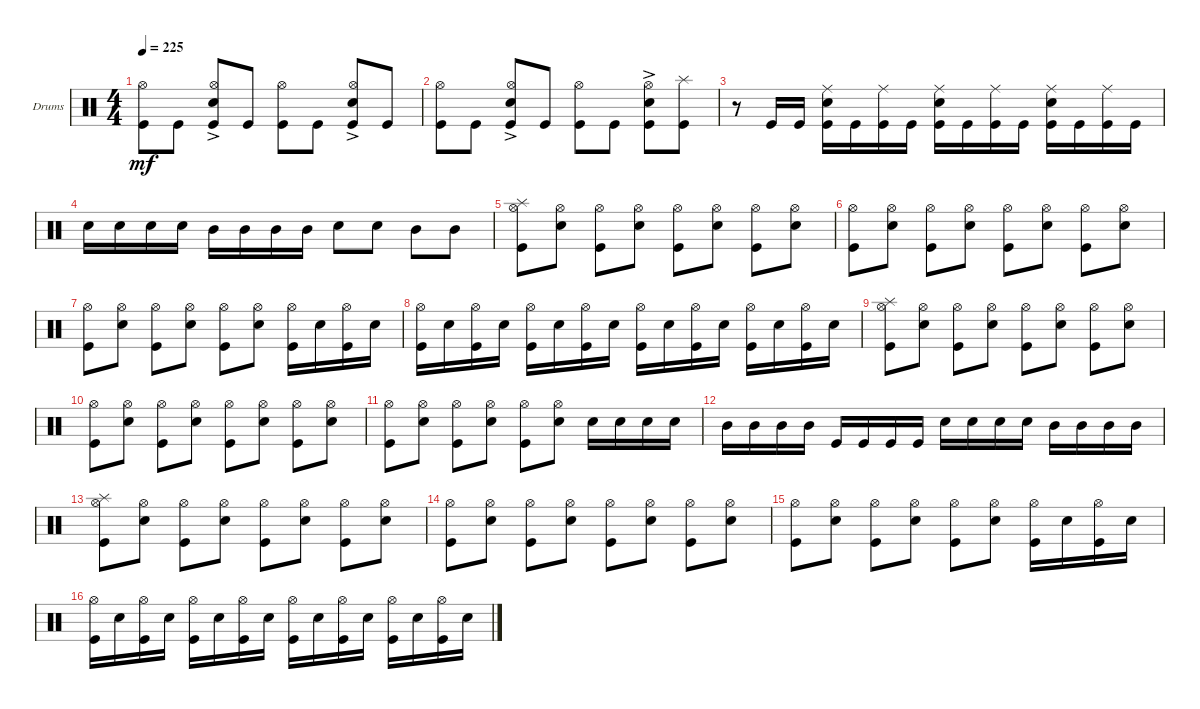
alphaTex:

\bracketExtendMode groupsimilarinstruments
\firstSystemTrackNameOrientation horizontal
\otherSystemsTrackNameOrientation horizontal
\track ("Drumkit" "Drums") {instrument percussion}
\staff {score}
\articulation defaults
\ts (4 4)
\tempo 225
\clef neutral
\ks c
("Kick (hit)" "Hi-Hat (open)").8{dy mf} "Kick (hit)".8 ("Snare (hit) 2"{ac} "Kick (hit)" "Hi-Hat (open)").8 "Kick (hit)".8 ("Kick (hit)" "Hi-Hat (open)").8 "Kick (hit)".8 ("Snare (hit) 2"{ac} "Kick (hit)" "Hi-Hat (open)").8 "Kick (hit)".8 |
("Kick (hit)" "Hi-Hat (open)").8 "Kick (hit)".8 ("Snare (hit) 2"{ac} "Kick (hit)" "Hi-Hat (open)").8 "Kick (hit)".8 ("Kick (hit)" "Hi-Hat (open)").8 "Kick (hit)".8 ("Snare (hit) 2"{ac} "Kick (hit)" "Hi-Hat (open)").8 ("Kick (hit)" "Splash (hit)").8 |
r.8 "Kick (hit)".16 "Kick (hit)".16 ("Snare (hit) 2" "Kick (hit)" "Ride (middle)").16 "Kick (hit)".16 ("Kick (hit)" "Ride (middle)").16 "Kick (hit)".16 ("Snare (hit) 2" "Kick (hit)" "Ride (middle)").16 "Kick (hit)".16 ("Kick (hit)" "Ride (middle)").16 "Kick (hit)".16 ("Snare (hit) 2" "Kick (hit)" "Ride (middle)").16 "Kick (hit)".16 ("Kick (hit)" "Ride (middle)").16 "Kick (hit)".16 |
"Snare (hit) 2".16 "Snare (hit) 2".16 "Snare (hit) 2".16 "Snare (hit) 2".16 "Mid Tom (hit)".16 "Mid Tom (hit)".16 "Mid Tom (hit)".16 "Mid Tom (hit)".16 "Snare (hit) 2".8 "Snare (hit) 2".8 "Mid Tom (hit)".8 "Mid Tom (hit)".8 |
("Kick (hit)" "Hi-Hat (open)" "Splash (hit)").8 ("Snare (hit) 2" "Hi-Hat (open)").8 ("Kick (hit)" "Hi-Hat (open)").8 ("Snare (hit) 2" "Hi-Hat (open)").8 ("Kick (hit)" "Hi-Hat (open)").8 ("Snare (hit) 2" "Hi-Hat (open)").8 ("Kick (hit)" "Hi-Hat (open)").8 ("Snare (hit) 2" "Hi-Hat (open)").8 |
("Kick (hit)" "Hi-Hat (open)").8 ("Snare (hit) 2" "Hi-Hat (open)").8 ("Kick (hit)" "Hi-Hat (open)").8 ("Snare (hit) 2" "Hi-Hat (open)").8 ("Kick (hit)" "Hi-Hat (open)").8 ("Snare (hit) 2" "Hi-Hat (open)").8 ("Kick (hit)" "Hi-Hat (open)").8 ("Snare (hit) 2" "Hi-Hat (open)").8 |
("Kick (hit)" "Hi-Hat (open)").8 ("Snare (hit) 2" "Hi-Hat (open)").8 ("Kick (hit)" "Hi-Hat (open)").8 ("Snare (hit) 2" "Hi-Hat (open)").8 ("Kick (hit)" "Hi-Hat (open)").8 ("Snare (hit) 2" "Hi-Hat (open)").8 ("Kick (hit)" "Hi-Hat (open)").16 "Snare (hit) 2".16 ("Kick (hit)" "Hi-Hat (open)").16 "Snare (hit) 2".16 |
("Kick (hit)" "Hi-Hat (open)").16 "Snare (hit) 2".16 ("Kick (hit)" "Hi-Hat (open)").16 "Snare (hit) 2".16 ("Kick (hit)" "Hi-Hat (open)").16 "Snare (hit) 2".16 ("Kick (hit)" "Hi-Hat (open)").16 "Snare (hit) 2".16 ("Kick (hit)" "Hi-Hat (open)").16 "Snare (hit) 2".16 ("Kick (hit)" "Hi-Hat (open)").16 "Snare (hit) 2".16 ("Kick (hit)" "Hi-Hat (open)").16 "Snare (hit) 2".16 ("Kick (hit)" "Hi-Hat (open)").16 "Snare (hit) 2".16 |
("Kick (hit)" "Hi-Hat (open)" "Splash (hit)").8 ("Snare (hit) 2" "Hi-Hat (open)").8 ("Kick (hit)" "Hi-Hat (open)").8 ("Snare (hit) 2" "Hi-Hat (open)").8 ("Kick (hit)" "Hi-Hat (open)").8 ("Snare (hit) 2" "Hi-Hat (open)").8 ("Kick (hit)" "Hi-Hat (open)").8 ("Snare (hit) 2" "Hi-Hat (open)").8 |
("Kick (hit)" "Hi-Hat (open)").8 ("Snare (hit) 2" "Hi-Hat (open)").8 ("Kick (hit)" "Hi-Hat (open)").8 ("Snare (hit) 2" "Hi-Hat (open)").8 ("Kick (hit)" "Hi-Hat (open)").8 ("Snare (hit) 2" "Hi-Hat (open)").8 ("Kick (hit)" "Hi-Hat (open)").8 ("Snare (hit) 2" "Hi-Hat (open)").8 |
("Kick (hit)" "Hi-Hat (open)").8 ("Snare (hit) 2" "Hi-Hat (open)").8 ("Kick (hit)" "Hi-Hat (open)").8 ("Snare (hit) 2" "Hi-Hat (open)").8 ("Kick (hit)" "Hi-Hat (open)").8 ("Snare (hit) 2" "Hi-Hat (open)").8 "Snare (hit) 2".16 "Snare (hit) 2".16 "Snare (hit) 2".16 "Snare (hit) 2".16 |
"Mid Tom (hit)".16 "Mid Tom (hit)".16 "Mid Tom (hit)".16 "Mid Tom (hit)".16 "Kick (hit)".16 "Kick (hit)".16 "Kick (hit)".16 "Kick (hit)".16 "Snare (hit) 2".16 "Snare (hit) 2".16 "Snare (hit) 2".16 "Snare (hit) 2".16 "Mid Tom (hit)".16 "Mid Tom (hit)".16 "Mid Tom (hit)".16 "Mid Tom (hit)".16 |
("Kick (hit)" "Hi-Hat (open)" "Splash (hit)").8 ("Snare (hit) 2" "Hi-Hat (open)").8 ("Kick (hit)" "Hi-Hat (open)").8 ("Snare (hit) 2" "Hi-Hat (open)").8 ("Kick (hit)" "Hi-Hat (open)").8 ("Snare (hit) 2" "Hi-Hat (open)").8 ("Kick (hit)" "Hi-Hat (open)").8 ("Snare (hit) 2" "Hi-Hat (open)").8 |
("Kick (hit)" "Hi-Hat (open)").8 ("Snare (hit) 2" "Hi-Hat (open)").8 ("Kick (hit)" "Hi-Hat (open)").8 ("Snare (hit) 2" "Hi-Hat (open)").8 ("Kick (hit)" "Hi-Hat (open)").8 ("Snare (hit) 2" "Hi-Hat (open)").8 ("Kick (hit)" "Hi-Hat (open)").8 ("Snare (hit) 2" "Hi-Hat (open)").8 |
("Kick (hit)" "Hi-Hat (open)").8 ("Snare (hit) 2" "Hi-Hat (open)").8 ("Kick (hit)" "Hi-Hat (open)").8 ("Snare (hit) 2" "Hi-Hat (open)").8 ("Kick (hit)" "Hi-Hat (open)").8 ("Snare (hit) 2" "Hi-Hat (open)").8 ("Kick (hit)" "Hi-Hat (open)").16 "Snare (hit) 2".16 ("Kick (hit)" "Hi-Hat (open)").16 "Snare (hit) 2".16 |
("Kick (hit)" "Hi-Hat (open)").16 "Snare (hit) 2".16 ("Kick (hit)" "Hi-Hat (open)").16 "Snare (hit) 2".16 ("Kick (hit)" "Hi-Hat (open)").16 "Snare (hit) 2".16 ("Kick (hit)" "Hi-Hat (open)").16 "Snare (hit) 2".16 ("Kick (hit)" "Hi-Hat (open)").16 "Snare (hit) 2".16 ("Kick (hit)" "Hi-Hat (open)").16 "Snare (hit) 2".16 ("Kick (hit)" "Hi-Hat (open)").16 "Snare (hit) 2".16 ("Kick (hit)" "Hi-Hat (open)").16 "Snare (hit) 2".16
